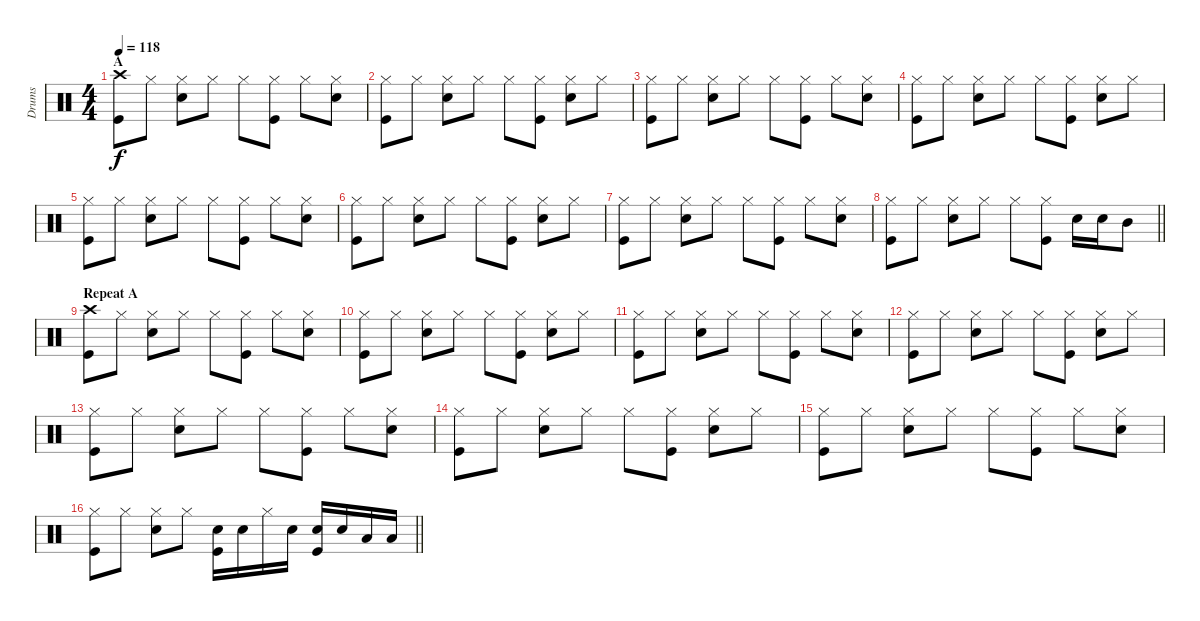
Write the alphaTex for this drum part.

\track ("Drums" "Drums") {instrument percussion}
\staff {score}
\articulation defaults
\ts (4 4)
\section ("" "A")
\tempo 118
\clef neutral
\ks c
("Crash high (hit)" "Kick (hit)").8{dy f} "Hi-Hat (closed)".8 ("Hi-Hat (closed)" "Electric Snare (hit)").8 "Hi-Hat (closed)".8 "Hi-Hat (closed)".8 ("Hi-Hat (closed)" "Kick (hit)").8 "Hi-Hat (closed)".8 ("Hi-Hat (closed)" "Electric Snare (hit)").8 |
("Hi-Hat (closed)" "Kick (hit)").8 "Hi-Hat (closed)".8 ("Hi-Hat (closed)" "Electric Snare (hit)").8 "Hi-Hat (closed)".8 "Hi-Hat (closed)".8 ("Hi-Hat (closed)" "Kick (hit)").8 ("Hi-Hat (closed)" "Electric Snare (hit)").8 "Hi-Hat (closed)".8 |
("Hi-Hat (closed)" "Kick (hit)").8 "Hi-Hat (closed)".8 ("Hi-Hat (closed)" "Electric Snare (hit)").8 "Hi-Hat (closed)".8 "Hi-Hat (closed)".8 ("Hi-Hat (closed)" "Kick (hit)").8 "Hi-Hat (closed)".8 ("Hi-Hat (closed)" "Electric Snare (hit)").8 |
("Hi-Hat (closed)" "Kick (hit)").8 "Hi-Hat (closed)".8 ("Hi-Hat (closed)" "Electric Snare (hit)").8 "Hi-Hat (closed)".8 "Hi-Hat (closed)".8 ("Hi-Hat (closed)" "Kick (hit)").8 ("Hi-Hat (closed)" "Electric Snare (hit)").8 "Hi-Hat (closed)".8 |
("Hi-Hat (closed)" "Kick (hit)").8 "Hi-Hat (closed)".8 ("Hi-Hat (closed)" "Electric Snare (hit)").8 "Hi-Hat (closed)".8 "Hi-Hat (closed)".8 ("Hi-Hat (closed)" "Kick (hit)").8 "Hi-Hat (closed)".8 ("Hi-Hat (closed)" "Electric Snare (hit)").8 |
("Hi-Hat (closed)" "Kick (hit)").8 "Hi-Hat (closed)".8 ("Hi-Hat (closed)" "Electric Snare (hit)").8 "Hi-Hat (closed)".8 "Hi-Hat (closed)".8 ("Hi-Hat (closed)" "Kick (hit)").8 ("Hi-Hat (closed)" "Electric Snare (hit)").8 "Hi-Hat (closed)".8 |
("Hi-Hat (closed)" "Kick (hit)").8 "Hi-Hat (closed)".8 ("Hi-Hat (closed)" "Electric Snare (hit)").8 "Hi-Hat (closed)".8 "Hi-Hat (closed)".8 ("Hi-Hat (closed)" "Kick (hit)").8 "Hi-Hat (closed)".8 ("Hi-Hat (closed)" "Electric Snare (hit)").8 |
\barLineRight lightlight
("Hi-Hat (closed)" "Kick (hit)").8 "Hi-Hat (closed)".8 ("Hi-Hat (closed)" "Electric Snare (hit)").8 "Hi-Hat (closed)".8 "Hi-Hat (closed)".8 ("Hi-Hat (closed)" "Kick (hit)").8 "Electric Snare (hit)".16 "Electric Snare (hit)".16 "Mid Tom (hit)".8 |
\section ("" "Repeat A")
("Crash high (hit)" "Kick (hit)").8 "Hi-Hat (closed)".8 ("Hi-Hat (closed)" "Electric Snare (hit)").8 "Hi-Hat (closed)".8 "Hi-Hat (closed)".8 ("Hi-Hat (closed)" "Kick (hit)").8 "Hi-Hat (closed)".8 ("Hi-Hat (closed)" "Electric Snare (hit)").8 |
("Hi-Hat (closed)" "Kick (hit)").8 "Hi-Hat (closed)".8 ("Hi-Hat (closed)" "Electric Snare (hit)").8 "Hi-Hat (closed)".8 "Hi-Hat (closed)".8 ("Hi-Hat (closed)" "Kick (hit)").8 ("Hi-Hat (closed)" "Electric Snare (hit)").8 "Hi-Hat (closed)".8 |
("Hi-Hat (closed)" "Kick (hit)").8 "Hi-Hat (closed)".8 ("Hi-Hat (closed)" "Electric Snare (hit)").8 "Hi-Hat (closed)".8 "Hi-Hat (closed)".8 ("Hi-Hat (closed)" "Kick (hit)").8 "Hi-Hat (closed)".8 ("Hi-Hat (closed)" "Electric Snare (hit)").8 |
("Hi-Hat (closed)" "Kick (hit)").8 "Hi-Hat (closed)".8 ("Hi-Hat (closed)" "Electric Snare (hit)").8 "Hi-Hat (closed)".8 "Hi-Hat (closed)".8 ("Hi-Hat (closed)" "Kick (hit)").8 ("Hi-Hat (closed)" "Electric Snare (hit)").8 "Hi-Hat (closed)".8 |
("Hi-Hat (closed)" "Kick (hit)").8 "Hi-Hat (closed)".8 ("Hi-Hat (closed)" "Electric Snare (hit)").8 "Hi-Hat (closed)".8 "Hi-Hat (closed)".8 ("Hi-Hat (closed)" "Kick (hit)").8 "Hi-Hat (closed)".8 ("Hi-Hat (closed)" "Electric Snare (hit)").8 |
("Hi-Hat (closed)" "Kick (hit)").8 "Hi-Hat (closed)".8 ("Hi-Hat (closed)" "Electric Snare (hit)").8 "Hi-Hat (closed)".8 "Hi-Hat (closed)".8 ("Hi-Hat (closed)" "Kick (hit)").8 ("Hi-Hat (closed)" "Electric Snare (hit)").8 "Hi-Hat (closed)".8 |
("Hi-Hat (closed)" "Kick (hit)").8 "Hi-Hat (closed)".8 ("Hi-Hat (closed)" "Electric Snare (hit)").8 "Hi-Hat (closed)".8 "Hi-Hat (closed)".8 ("Hi-Hat (closed)" "Kick (hit)").8 "Hi-Hat (closed)".8 ("Hi-Hat (closed)" "Electric Snare (hit)").8 |
\barLineRight lightlight
("Hi-Hat (closed)" "Kick (hit)").8 "Hi-Hat (closed)".8 ("Hi-Hat (closed)" "Electric Snare (hit)").8 "Hi-Hat (closed)".8 ("Electric Snare (hit)" "Kick (hit)").16 "Electric Snare (hit)".16 "Hi-Hat (closed)".16 "Electric Snare (hit)".16 ("Electric Snare (hit)" "Kick (hit)").16 "Electric Snare (hit)".16 "Low Tom (hit)".16 "Low Tom (hit)".16
